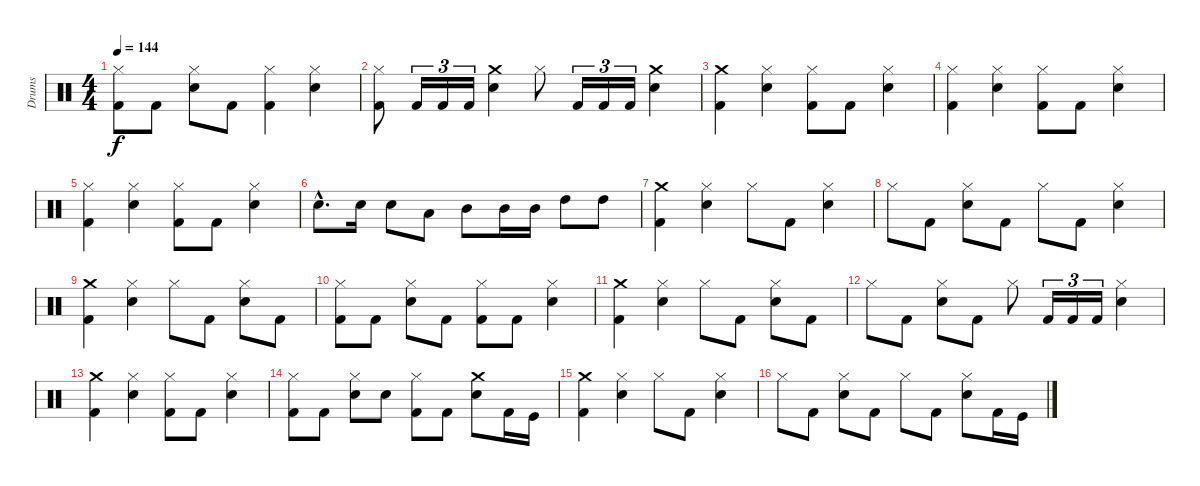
\track ("Drums" "Drums") {instrument percussion}
\staff {score}
\articulation defaults
\ts (4 4)
\tempo 144
\clef neutral
\ks c
("Kick (hit) 2" "Hi-Hat (closed)").8{dy f} "Kick (hit) 2".8 ("Snare (hit) 2" "Hi-Hat (closed)").8 "Kick (hit) 2".8 ("Kick (hit) 2" "Hi-Hat (closed)").4 ("Snare (hit) 2" "Hi-Hat (closed)").4 |
("Kick (hit) 2" "Hi-Hat (closed)").8 "Kick (hit) 2".16{tu (3 2)} "Kick (hit) 2".16{tu (3 2)} "Kick (hit) 2".16{tu (3 2)} ("Snare (hit) 2" "Crash medium (hit)").4 "Hi-Hat (closed)".8 "Kick (hit) 2".16{tu (3 2)} "Kick (hit) 2".16{tu (3 2)} "Kick (hit) 2".16{tu (3 2)} ("Snare (hit) 2" "Crash medium (hit)").4 |
("Kick (hit) 2" "Crash medium (hit)").4 ("Snare (hit) 2" "Hi-Hat (closed)").4 ("Kick (hit) 2" "Hi-Hat (closed)").8 "Kick (hit) 2".8 ("Snare (hit) 2" "Hi-Hat (closed)").4 |
("Kick (hit) 2" "Hi-Hat (closed)").4 ("Snare (hit) 2" "Hi-Hat (closed)").4 ("Hi-Hat (closed)" "Kick (hit) 2").8 "Kick (hit) 2".8 ("Snare (hit) 2" "Hi-Hat (closed)").4 |
("Kick (hit) 2" "Hi-Hat (closed)").4 ("Snare (hit) 2" "Hi-Hat (closed)").4 ("Hi-Hat (closed)" "Kick (hit) 2").8 "Kick (hit) 2".8 ("Snare (hit) 2" "Hi-Hat (closed)").4 |
"Snare (hit) 2"{hac}.8{d} "Snare (hit) 2".16 "Snare (hit) 2".8 "Low Tom (hit)".8 "Mid Tom (hit)".8 "Mid Tom (hit)".16 "Mid Tom (hit)".16 "High Tom (hit)".8 "High Tom (hit)".8 |
("Crash medium (hit)" "Kick (hit) 2").4 ("Snare (hit) 2" "Hi-Hat (closed)").4 "Hi-Hat (closed)".8 "Kick (hit) 2".8 ("Snare (hit) 2" "Hi-Hat (closed)").4 |
"Hi-Hat (closed)".8 "Kick (hit) 2".8 ("Snare (hit) 2" "Hi-Hat (closed)").8 "Kick (hit) 2".8 "Hi-Hat (closed)".8 "Kick (hit) 2".8 ("Snare (hit) 2" "Hi-Hat (closed)").4 |
("Kick (hit) 2" "Crash medium (hit)").4 ("Snare (hit) 2" "Hi-Hat (closed)").4 "Hi-Hat (closed)".8 "Kick (hit) 2".8 ("Snare (hit) 2" "Hi-Hat (closed)").8 "Kick (hit) 2".8 |
("Kick (hit) 2" "Hi-Hat (closed)").8 "Kick (hit) 2".8 ("Snare (hit) 2" "Hi-Hat (closed)").8 "Kick (hit) 2".8 ("Kick (hit) 2" "Hi-Hat (closed)").8 "Kick (hit) 2".8 ("Snare (hit) 2" "Hi-Hat (closed)").4 |
("Crash medium (hit)" "Kick (hit) 2").4 ("Snare (hit) 2" "Hi-Hat (closed)").4 "Hi-Hat (closed)".8 "Kick (hit) 2".8 ("Snare (hit) 2" "Hi-Hat (closed)").8 "Kick (hit) 2".8 |
"Hi-Hat (closed)".8 "Kick (hit) 2".8 ("Snare (hit) 2" "Hi-Hat (closed)").8 "Kick (hit) 2".8 "Hi-Hat (closed)".8 "Kick (hit) 2".16{tu (3 2)} "Kick (hit) 2".16{tu (3 2)} "Kick (hit) 2".16{tu (3 2)} ("Snare (hit) 2" "Hi-Hat (closed)").4 |
("Kick (hit) 2" "Crash medium (hit)").4 ("Snare (hit) 2" "Hi-Hat (closed)").4 ("Kick (hit) 2" "Hi-Hat (closed)").8 "Kick (hit) 2".8 ("Snare (hit) 2" "Hi-Hat (closed)").4 |
("Hi-Hat (closed)" "Kick (hit) 2").8 "Kick (hit) 2".8 ("Snare (hit) 2" "Hi-Hat (closed)").8 "Snare (hit) 2".8 ("Hi-Hat (closed)" "Kick (hit) 2").8 "Kick (hit) 2".8 ("Crash medium (hit)" "Snare (hit) 2").8 "Kick (hit) 2".16 "Kick (hit)".16 |
("Kick (hit) 2" "Crash medium (hit)").4 ("Hi-Hat (closed)" "Snare (hit) 2").4 "Hi-Hat (closed)".8 "Kick (hit) 2".8 ("Snare (hit) 2" "Hi-Hat (closed)").4 |
"Hi-Hat (closed)".8 "Kick (hit) 2".8 ("Snare (hit) 2" "Hi-Hat (closed)").8 "Kick (hit) 2".8 "Hi-Hat (closed)".8 "Kick (hit) 2".8 ("Snare (hit) 2" "Hi-Hat (closed)").8 "Kick (hit) 2".16 "Kick (hit)".16
